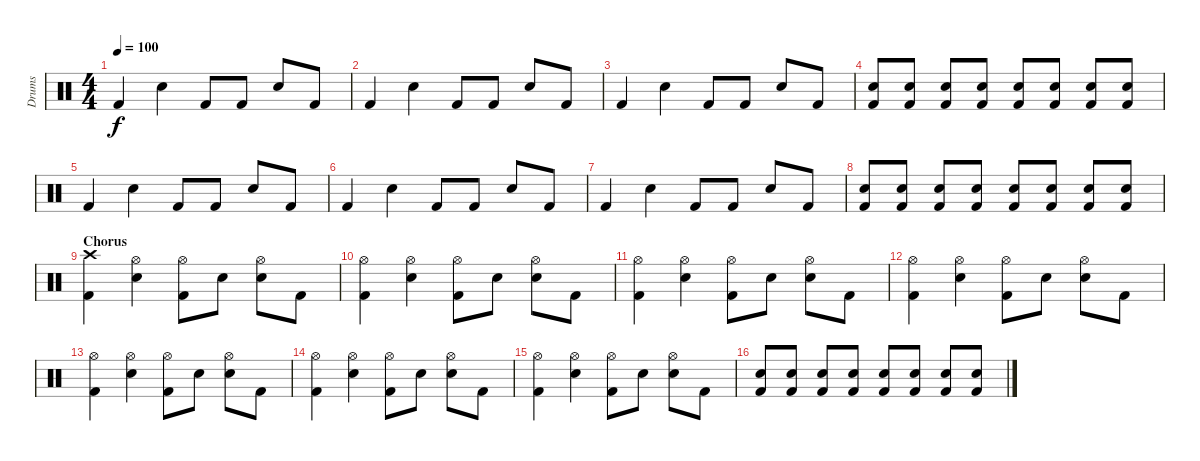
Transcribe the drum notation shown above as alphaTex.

\track ("Drums" "Drums") {instrument percussion}
\staff {score}
\articulation defaults
\ts (4 4)
\tempo 100
\clef neutral
\ks c "Kick (hit) 2".4{dy f} "Electric Snare (hit)".4 "Kick (hit) 2".8 "Kick (hit) 2".8 "Electric Snare (hit)".8 "Kick (hit) 2".8
|
"Kick (hit) 2".4 "Electric Snare (hit)".4 "Kick (hit) 2".8 "Kick (hit) 2".8 "Electric Snare (hit)".8 "Kick (hit) 2".8 |
"Kick (hit) 2".4 "Electric Snare (hit)".4 "Kick (hit) 2".8 "Kick (hit) 2".8 "Electric Snare (hit)".8 "Kick (hit) 2".8 |
("Electric Snare (hit)" "Kick (hit) 2").8 ("Electric Snare (hit)" "Kick (hit) 2").8 ("Electric Snare (hit)" "Kick (hit) 2").8 ("Electric Snare (hit)" "Kick (hit) 2").8 ("Electric Snare (hit)" "Kick (hit) 2").8 ("Electric Snare (hit)" "Kick (hit) 2").8 ("Electric Snare (hit)" "Kick (hit) 2").8 ("Electric Snare (hit)" "Kick (hit) 2").8 |
"Kick (hit) 2".4 "Electric Snare (hit)".4 "Kick (hit) 2".8 "Kick (hit) 2".8 "Electric Snare (hit)".8 "Kick (hit) 2".8 |
"Kick (hit) 2".4 "Electric Snare (hit)".4 "Kick (hit) 2".8 "Kick (hit) 2".8 "Electric Snare (hit)".8 "Kick (hit) 2".8 |
"Kick (hit) 2".4 "Electric Snare (hit)".4 "Kick (hit) 2".8 "Kick (hit) 2".8 "Electric Snare (hit)".8 "Kick (hit) 2".8 |
("Electric Snare (hit)" "Kick (hit) 2").8 ("Electric Snare (hit)" "Kick (hit) 2").8 ("Electric Snare (hit)" "Kick (hit) 2").8 ("Electric Snare (hit)" "Kick (hit) 2").8 ("Electric Snare (hit)" "Kick (hit) 2").8 ("Electric Snare (hit)" "Kick (hit) 2").8 ("Electric Snare (hit)" "Kick (hit) 2").8 ("Electric Snare (hit)" "Kick (hit) 2").8 |
\section ("" "Chorus")
("Crash high (hit)" "Kick (hit) 2").4 ("Hi-Hat (open)" "Electric Snare (hit)").4 ("Hi-Hat (open)" "Kick (hit) 2").8 "Electric Snare (hit)".8 ("Hi-Hat (open)" "Electric Snare (hit)").8 "Kick (hit) 2".8 |
("Hi-Hat (open)" "Kick (hit) 2").4 ("Hi-Hat (open)" "Electric Snare (hit)").4 ("Hi-Hat (open)" "Kick (hit) 2").8 "Electric Snare (hit)".8 ("Hi-Hat (open)" "Electric Snare (hit)").8 "Kick (hit) 2".8 |
("Hi-Hat (open)" "Kick (hit) 2").4 ("Hi-Hat (open)" "Electric Snare (hit)").4 ("Hi-Hat (open)" "Kick (hit) 2").8 "Electric Snare (hit)".8 ("Hi-Hat (open)" "Electric Snare (hit)").8 "Kick (hit) 2".8 |
("Hi-Hat (open)" "Kick (hit) 2").4 ("Hi-Hat (open)" "Electric Snare (hit)").4 ("Hi-Hat (open)" "Kick (hit) 2").8 "Electric Snare (hit)".8 ("Hi-Hat (open)" "Electric Snare (hit)").8 "Kick (hit) 2".8 |
("Hi-Hat (open)" "Kick (hit) 2").4 ("Hi-Hat (open)" "Electric Snare (hit)").4 ("Hi-Hat (open)" "Kick (hit) 2").8 "Electric Snare (hit)".8 ("Hi-Hat (open)" "Electric Snare (hit)").8 "Kick (hit) 2".8 |
("Hi-Hat (open)" "Kick (hit) 2").4 ("Hi-Hat (open)" "Electric Snare (hit)").4 ("Hi-Hat (open)" "Kick (hit) 2").8 "Electric Snare (hit)".8 ("Hi-Hat (open)" "Electric Snare (hit)").8 "Kick (hit) 2".8 |
("Hi-Hat (open)" "Kick (hit) 2").4 ("Hi-Hat (open)" "Electric Snare (hit)").4 ("Hi-Hat (open)" "Kick (hit) 2").8 "Electric Snare (hit)".8 ("Hi-Hat (open)" "Electric Snare (hit)").8 "Kick (hit) 2".8 |
("Electric Snare (hit)" "Kick (hit) 2").8 ("Electric Snare (hit)" "Kick (hit) 2").8 ("Electric Snare (hit)" "Kick (hit) 2").8 ("Electric Snare (hit)" "Kick (hit) 2").8 ("Electric Snare (hit)" "Kick (hit) 2").8 ("Electric Snare (hit)" "Kick (hit) 2").8 ("Electric Snare (hit)" "Kick (hit) 2").8 ("Electric Snare (hit)" "Kick (hit) 2").8
